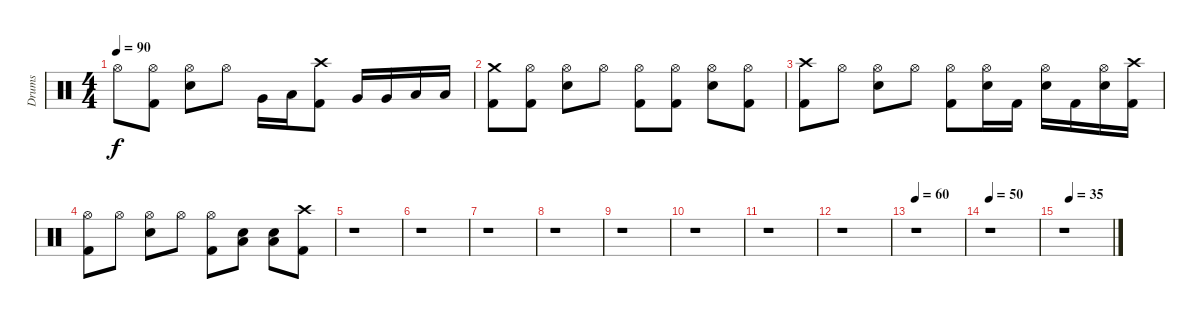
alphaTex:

\track ("Drums" "Drums") {instrument percussion}
\staff {score}
\articulation defaults
\ts (4 4)
\tempo 90
\clef neutral
\ks c "Hi-Hat (open)".8{dy f}
("Hi-Hat (open)" "Kick (hit) 2").8 ("Hi-Hat (open)" "Electric Snare (hit)").8 "Hi-Hat (open)".8 "Very Low Tom (hit)".16 "Low Floor Tom (hit)".16 ("Crash high (hit)" "Kick (hit) 2").8 "Very Low Tom (hit)".16 "Very Low Tom (hit)".16 "Low Floor Tom (hit)".16 "Low Floor Tom (hit)".16 |
("Crash medium (hit)" "Kick (hit) 2").8 ("Hi-Hat (open)" "Kick (hit) 2").8 ("Hi-Hat (open)" "Electric Snare (hit)").8 "Hi-Hat (open)".8 ("Hi-Hat (open)" "Kick (hit) 2").8 ("Hi-Hat (open)" "Kick (hit) 2").8 ("Hi-Hat (open)" "Electric Snare (hit)").8 ("Hi-Hat (open)" "Kick (hit) 2").8 |
("Crash high (hit)" "Kick (hit) 2").8 "Hi-Hat (open)".8 ("Hi-Hat (open)" "Electric Snare (hit)").8 "Hi-Hat (open)".8 ("Hi-Hat (open)" "Kick (hit) 2").8 ("Hi-Hat (open)" "Electric Snare (hit)").16 "Kick (hit) 2".16 ("Hi-Hat (open)" "Electric Snare (hit)").16 "Kick (hit) 2".16 ("Hi-Hat (open)" "Electric Snare (hit)").16 ("Crash high (hit)" "Kick (hit) 2").16 |
("Hi-Hat (open)" "Kick (hit) 2").8 "Hi-Hat (open)".8 ("Hi-Hat (open)" "Electric Snare (hit)").8 "Hi-Hat (open)".8 ("Hi-Hat (open)" "Kick (hit) 2").8 ("Low Floor Tom (hit)" "Electric Snare (hit)").8 ("Low Floor Tom (hit)" "Electric Snare (hit)").8 ("Crash high (hit)" "Kick (hit) 2").8 |
r.1 |
r.1 |
r.1 |
r.1 |
r.1 |
r.1 |
r.1 |
r.1 |
\tempo 60
r.1 |
\tempo 50
r.1 |
\tempo (35 0.125)
r.1
